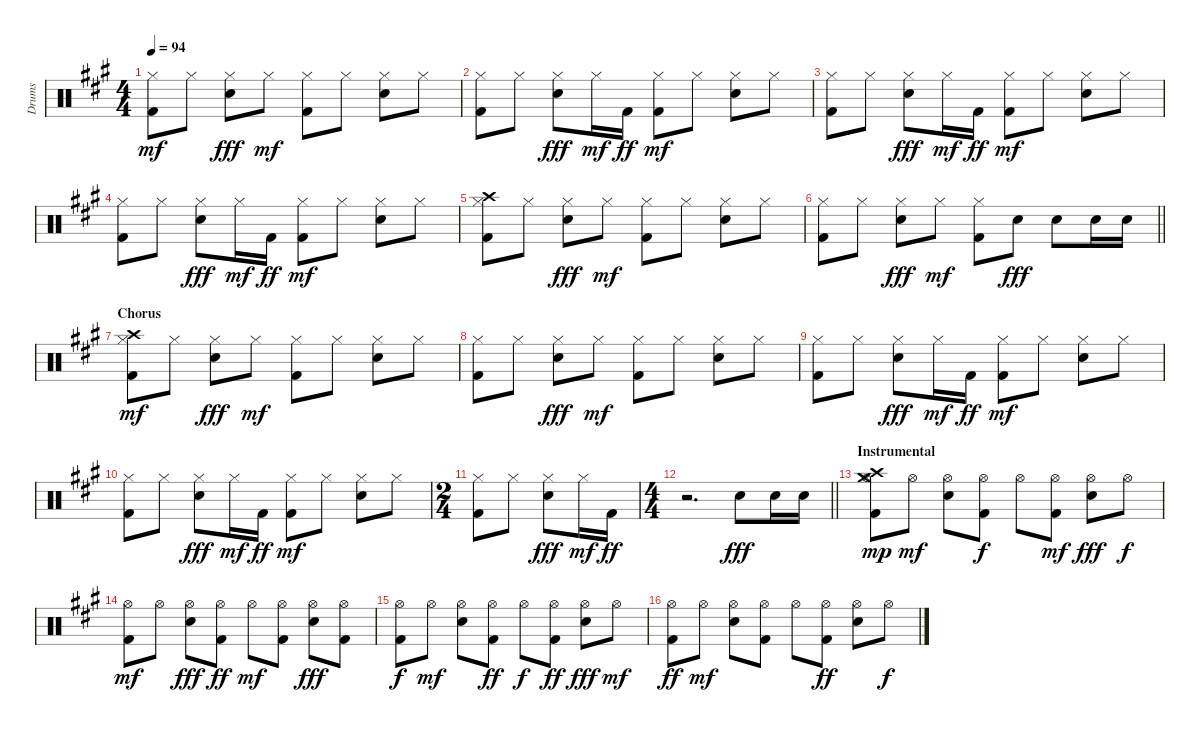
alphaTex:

\track ("Drums" "Drums") {instrument percussion}
\staff {score}
\articulation defaults
\ts (4 4)
\tempo 94
\clef neutral
\ks a
("Kick (hit) 2" "Hi-Hat (closed)").8{dy mf} "Hi-Hat (closed)".8 ("Electric Snare (hit)" "Hi-Hat (closed)").8{dy fff} "Hi-Hat (closed)".8{dy mf} ("Kick (hit) 2" "Hi-Hat (closed)").8 "Hi-Hat (closed)".8 ("Electric Snare (hit)" "Hi-Hat (closed)").8 "Hi-Hat (closed)".8 |
("Kick (hit) 2" "Hi-Hat (closed)").8 "Hi-Hat (closed)".8 ("Electric Snare (hit)" "Hi-Hat (closed)").8{dy fff} "Hi-Hat (closed)".16{dy mf} "Kick (hit) 2".16{dy ff} ("Kick (hit) 2" "Hi-Hat (closed)").8{dy mf} "Hi-Hat (closed)".8 ("Electric Snare (hit)" "Hi-Hat (closed)").8 "Hi-Hat (closed)".8 |
("Kick (hit) 2" "Hi-Hat (closed)").8 "Hi-Hat (closed)".8 ("Electric Snare (hit)" "Hi-Hat (closed)").8{dy fff} "Hi-Hat (closed)".16{dy mf} "Kick (hit) 2".16{dy ff} ("Kick (hit) 2" "Hi-Hat (closed)").8{dy mf} "Hi-Hat (closed)".8 ("Electric Snare (hit)" "Hi-Hat (closed)").8 "Hi-Hat (closed)".8 |
("Kick (hit) 2" "Hi-Hat (closed)").8 "Hi-Hat (closed)".8 ("Electric Snare (hit)" "Hi-Hat (closed)").8{dy fff} "Hi-Hat (closed)".16{dy mf} "Kick (hit) 2".16{dy ff} ("Kick (hit) 2" "Hi-Hat (closed)").8{dy mf} "Hi-Hat (closed)".8 ("Electric Snare (hit)" "Hi-Hat (closed)").8 "Hi-Hat (closed)".8 |
("Kick (hit) 2" "Hi-Hat (closed)" "Crash high (hit)").8 "Hi-Hat (closed)".8 ("Electric Snare (hit)" "Hi-Hat (closed)").8{dy fff} "Hi-Hat (closed)".8{dy mf} ("Kick (hit) 2" "Hi-Hat (closed)").8 "Hi-Hat (closed)".8 ("Electric Snare (hit)" "Hi-Hat (closed)").8 "Hi-Hat (closed)".8 |
\barLineRight lightlight
("Kick (hit) 2" "Hi-Hat (closed)").8 "Hi-Hat (closed)".8 ("Electric Snare (hit)" "Hi-Hat (closed)").8{dy fff} "Hi-Hat (closed)".8{dy mf} ("Kick (hit) 2" "Hi-Hat (closed)").8 "Electric Snare (hit)".8{dy fff} "Electric Snare (hit)".8 "Electric Snare (hit)".16 "Electric Snare (hit)".16 |
\section ("" "Chorus")
("Kick (hit) 2" "Hi-Hat (closed)" "Crash high (hit)").8{dy mf} "Hi-Hat (closed)".8 ("Electric Snare (hit)" "Hi-Hat (closed)").8{dy fff} "Hi-Hat (closed)".8{dy mf} ("Kick (hit) 2" "Hi-Hat (closed)").8 "Hi-Hat (closed)".8 ("Electric Snare (hit)" "Hi-Hat (closed)").8 "Hi-Hat (closed)".8 |
("Kick (hit) 2" "Hi-Hat (closed)").8 "Hi-Hat (closed)".8 ("Electric Snare (hit)" "Hi-Hat (closed)").8{dy fff} "Hi-Hat (closed)".8{dy mf} ("Kick (hit) 2" "Hi-Hat (closed)").8 "Hi-Hat (closed)".8 ("Electric Snare (hit)" "Hi-Hat (closed)").8 "Hi-Hat (closed)".8 |
("Kick (hit) 2" "Hi-Hat (closed)").8 "Hi-Hat (closed)".8 ("Electric Snare (hit)" "Hi-Hat (closed)").8{dy fff} "Hi-Hat (closed)".16{dy mf} "Kick (hit) 2".16{dy ff} ("Kick (hit) 2" "Hi-Hat (closed)").8{dy mf} "Hi-Hat (closed)".8 ("Electric Snare (hit)" "Hi-Hat (closed)").8 "Hi-Hat (closed)".8 |
("Kick (hit) 2" "Hi-Hat (closed)").8 "Hi-Hat (closed)".8 ("Electric Snare (hit)" "Hi-Hat (closed)").8{dy fff} "Hi-Hat (closed)".16{dy mf} "Kick (hit) 2".16{dy ff} ("Kick (hit) 2" "Hi-Hat (closed)").8{dy mf} "Hi-Hat (closed)".8 ("Electric Snare (hit)" "Hi-Hat (closed)").8 "Hi-Hat (closed)".8 |
\ts (2 4)
("Kick (hit) 2" "Hi-Hat (closed)").8 "Hi-Hat (closed)".8 ("Electric Snare (hit)" "Hi-Hat (closed)").8{dy fff} "Hi-Hat (closed)".16{dy mf} "Kick (hit) 2".16{dy ff} |
\ts (4 4)
\barLineRight lightlight
r.2{d} "Electric Snare (hit)".8{dy fff} "Electric Snare (hit)".16 "Electric Snare (hit)".16 |
\section ("" "Instrumental")
("Kick (hit) 2" "Hi-Hat (open)" "Crash high (hit)" "Crash medium (hit)").8{dy mp} "Hi-Hat (open)".8{dy mf} ("Electric Snare (hit)" "Hi-Hat (open)").8 ("Kick (hit) 2" "Hi-Hat (open)").8{dy f} "Hi-Hat (open)".8 ("Kick (hit) 2" "Hi-Hat (open)").8{dy mf} ("Electric Snare (hit)" "Hi-Hat (open)").8{dy fff} "Hi-Hat (open)".8{dy f} |
("Kick (hit) 2" "Hi-Hat (open)").8{dy mf} "Hi-Hat (open)".8 ("Electric Snare (hit)" "Hi-Hat (open)").8{dy fff} ("Kick (hit) 2" "Hi-Hat (open)").8{dy ff} "Hi-Hat (open)".8{dy mf} ("Kick (hit) 2" "Hi-Hat (open)").8 ("Electric Snare (hit)" "Hi-Hat (open)").8{dy fff} ("Kick (hit) 2" "Hi-Hat (open)").8 |
("Hi-Hat (open)" "Kick (hit) 2").8{dy f} "Hi-Hat (open)".8{dy mf} ("Electric Snare (hit)" "Hi-Hat (open)").8 ("Kick (hit) 2" "Hi-Hat (open)").8{dy ff} "Hi-Hat (open)".8{dy f} ("Kick (hit) 2" "Hi-Hat (open)").8{dy ff} ("Electric Snare (hit)" "Hi-Hat (open)").8{dy fff} "Hi-Hat (open)".8{dy mf} |
("Kick (hit) 2" "Hi-Hat (open)").8{dy ff} "Hi-Hat (open)".8{dy mf} ("Electric Snare (hit)" "Hi-Hat (open)").8 ("Kick (hit) 2" "Hi-Hat (open)").8 "Hi-Hat (open)".8 ("Kick (hit) 2" "Hi-Hat (open)").8{dy ff} ("Electric Snare (hit)" "Hi-Hat (open)").8 "Hi-Hat (open)".8{dy f}
